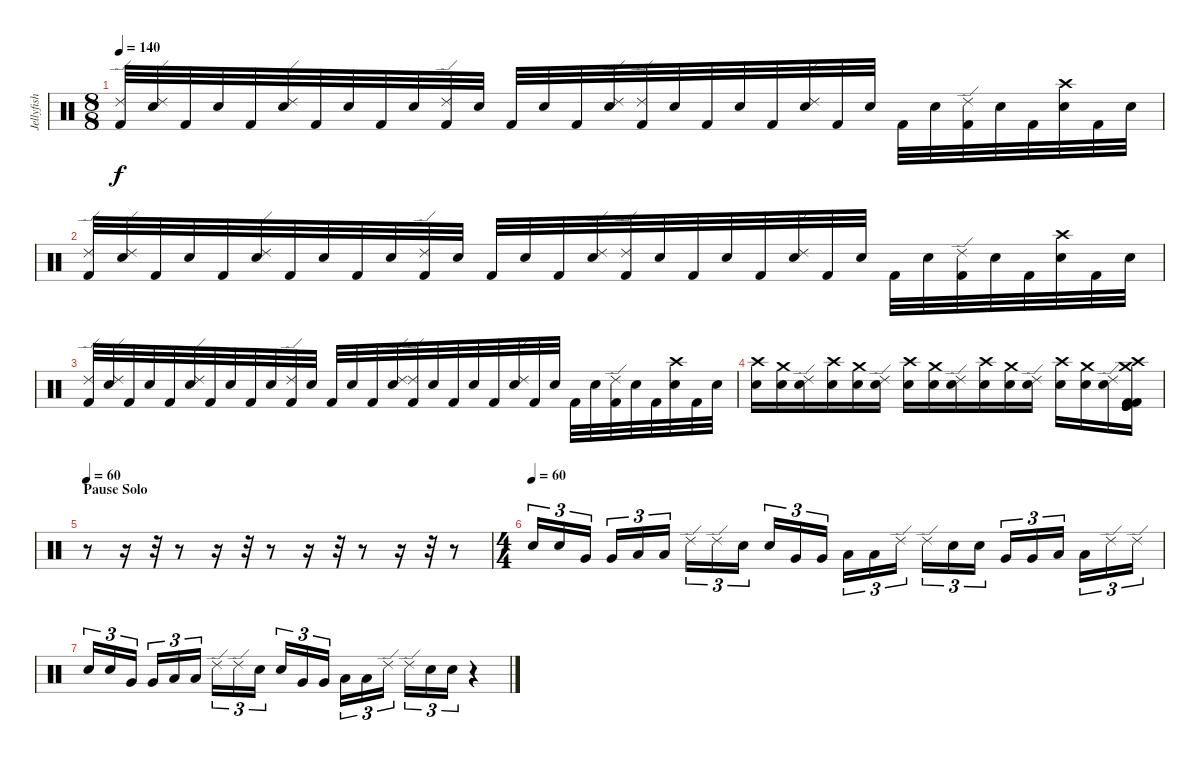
\track ("Jellyfish" "Jellyfish") {instrument percussion}
\staff {score}
\articulation defaults
\ts (8 8)
\tempo 140
\clef neutral
\ks c
("Ride (edge) 2" "Kick (hit) 2").32{dy f} ("Ride (edge) 2" "Snare (hit) 2").32 "Kick (hit) 2".32 "Snare (hit) 2".32 "Kick (hit) 2".32 ("Ride (edge) 2" "Snare (hit) 2").32 "Kick (hit) 2".32 "Snare (hit) 2".32 "Kick (hit) 2".32 "Snare (hit) 2".32 ("Ride (edge) 2" "Kick (hit) 2").32 "Snare (hit) 2".32 "Kick (hit) 2".32 "Snare (hit) 2".32 "Kick (hit) 2".32 ("Ride (edge) 2" "Snare (hit) 2").32 ("Ride (edge) 2" "Kick (hit) 2").32 "Snare (hit) 2".32 "Kick (hit) 2".32 "Snare (hit) 2".32 "Kick (hit) 2".32 ("Ride (edge) 2" "Snare (hit) 2").32 "Kick (hit) 2".32 "Snare (hit) 2".32 "Kick (hit) 2".32 "Snare (hit) 2".32 ("Ride (edge) 2" "Kick (hit) 2").32 "Snare (hit) 2".32 "Kick (hit) 2".32 ("Crash high (hit)"{be (custom 0 0 15 12 30 12 45 0 60 0)} "Snare (hit) 2").32 "Kick (hit) 2".32 "Snare (hit) 2".32 |
("Ride (edge) 2" "Kick (hit) 2").32 ("Ride (edge) 2" "Snare (hit) 2").32 "Kick (hit) 2".32 "Snare (hit) 2".32 "Kick (hit) 2".32 ("Ride (edge) 2" "Snare (hit) 2").32 "Kick (hit) 2".32 "Snare (hit) 2".32 "Kick (hit) 2".32 "Snare (hit) 2".32 ("Ride (edge) 2" "Kick (hit) 2").32 "Snare (hit) 2".32 "Kick (hit) 2".32 "Snare (hit) 2".32 "Kick (hit) 2".32 ("Ride (edge) 2" "Snare (hit) 2").32 ("Ride (edge) 2" "Kick (hit) 2").32 "Snare (hit) 2".32 "Kick (hit) 2".32 "Snare (hit) 2".32 "Kick (hit) 2".32 ("Ride (edge) 2" "Snare (hit) 2").32 "Kick (hit) 2".32 "Snare (hit) 2".32 "Kick (hit) 2".32 "Snare (hit) 2".32 ("Ride (edge) 2" "Kick (hit) 2").32 "Snare (hit) 2".32 "Kick (hit) 2".32 ("Crash high (hit)"{be (custom 0 0 15 12 30 12 45 0 60 0)} "Snare (hit) 2").32 "Kick (hit) 2".32 "Snare (hit) 2".32 |
("Ride (edge) 2" "Kick (hit) 2").32 ("Ride (edge) 2" "Snare (hit) 2").32 "Kick (hit) 2".32 "Snare (hit) 2".32 "Kick (hit) 2".32 ("Ride (edge) 2" "Snare (hit) 2").32 "Kick (hit) 2".32 "Snare (hit) 2".32 "Kick (hit) 2".32 "Snare (hit) 2".32 ("Ride (edge) 2" "Kick (hit) 2").32 "Snare (hit) 2".32 "Kick (hit) 2".32 "Snare (hit) 2".32 "Kick (hit) 2".32 ("Ride (edge) 2" "Snare (hit) 2").32 ("Ride (edge) 2" "Kick (hit) 2").32 "Snare (hit) 2".32 "Kick (hit) 2".32 "Snare (hit) 2".32 "Kick (hit) 2".32 ("Ride (edge) 2" "Snare (hit) 2").32 "Kick (hit) 2".32 "Snare (hit) 2".32 "Kick (hit) 2".32 "Snare (hit) 2".32 ("Ride (edge) 2" "Kick (hit) 2").32 "Snare (hit) 2".32 "Kick (hit) 2".32 ("Crash high (hit)"{be (custom 0 0 15 12 30 12 45 0 60 0)} "Snare (hit) 2").32 "Kick (hit) 2".32 "Snare (hit) 2".32 |
("Crash high (hit)" "Snare (hit) 2").16 ("Crash medium (hit)" "Snare (hit) 2").16 ("Ride (edge) 2" "Snare (hit) 2").16 ("Crash high (hit)" "Snare (hit) 2").16 ("Crash medium (hit)" "Snare (hit) 2").16 ("Ride (edge) 2" "Snare (hit) 2").16 ("Crash high (hit)" "Snare (hit) 2").16 ("Crash medium (hit)" "Snare (hit) 2").16 ("Ride (edge) 2" "Snare (hit) 2").16 ("Crash high (hit)" "Snare (hit) 2").16 ("Crash medium (hit)" "Snare (hit) 2").16 ("Ride (edge) 2" "Snare (hit) 2").16 ("Crash high (hit)" "Snare (hit) 2").16 ("Crash medium (hit)" "Snare (hit) 2").16 ("Ride (edge) 2" "Snare (hit) 2").16 ("Crash high (hit)" "Crash medium (hit)" "Kick (hit)" "Kick (hit) 2" "Kick (hit)" "Kick (hit) 2").16 |
\section ("" "Pause Solo")
\tempo 60
r.8 r.16 r.32 r.8 r.16 r.32 r.8 r.16 r.32 r.8 r.16 r.32 r.8 |
\ts (4 4)
\tempo (60)
"Snare (hit) 2".16{tu (3 2)} "Snare (hit) 2".16{tu (3 2)} "Very Low Tom (hit)".16{tu (3 2)} "Very Low Tom (hit)".16{tu (3 2)} "Low Floor Tom (hit)".16{tu (3 2)} "Low Floor Tom (hit)".16{tu (3 2)} "Ride (edge) 2".16{tu (3 2)} "Ride (edge) 2".16{tu (3 2)} "Snare (hit) 2".16{tu (3 2)} "Snare (hit) 2".16{tu (3 2)} "Very Low Tom (hit)".16{tu (3 2)} "Very Low Tom (hit)".16{tu (3 2)} "Low Floor Tom (hit)".16{tu (3 2)} "Low Floor Tom (hit)".16{tu (3 2)} "Ride (edge) 2".16{tu (3 2)} "Ride (edge) 2".16{tu (3 2)} "Snare (hit) 2".16{tu (3 2)} "Snare (hit) 2".16{tu (3 2)} "Very Low Tom (hit)".16{tu (3 2)} "Very Low Tom (hit)".16{tu (3 2)} "Low Floor Tom (hit)".16{tu (3 2)} "Low Floor Tom (hit)".16{tu (3 2)} "Ride (edge) 2".16{tu (3 2)} "Ride (edge) 2".16{tu (3 2)} |
"Snare (hit) 2".16{tu (3 2)} "Snare (hit) 2".16{tu (3 2)} "Very Low Tom (hit)".16{tu (3 2)} "Very Low Tom (hit)".16{tu (3 2)} "Low Floor Tom (hit)".16{tu (3 2)} "Low Floor Tom (hit)".16{tu (3 2)} "Ride (edge) 2".16{tu (3 2)} "Ride (edge) 2".16{tu (3 2)} "Snare (hit) 2".16{tu (3 2)} "Snare (hit) 2".16{tu (3 2)} "Very Low Tom (hit)".16{tu (3 2)} "Very Low Tom (hit)".16{tu (3 2)} "Low Floor Tom (hit)".16{tu (3 2)} "Low Floor Tom (hit)".16{tu (3 2)} "Ride (edge) 2".16{tu (3 2)} "Ride (edge) 2".16{tu (3 2)} "Snare (hit) 2".16{tu (3 2)} "Snare (hit) 2".16{tu (3 2)} r.4
